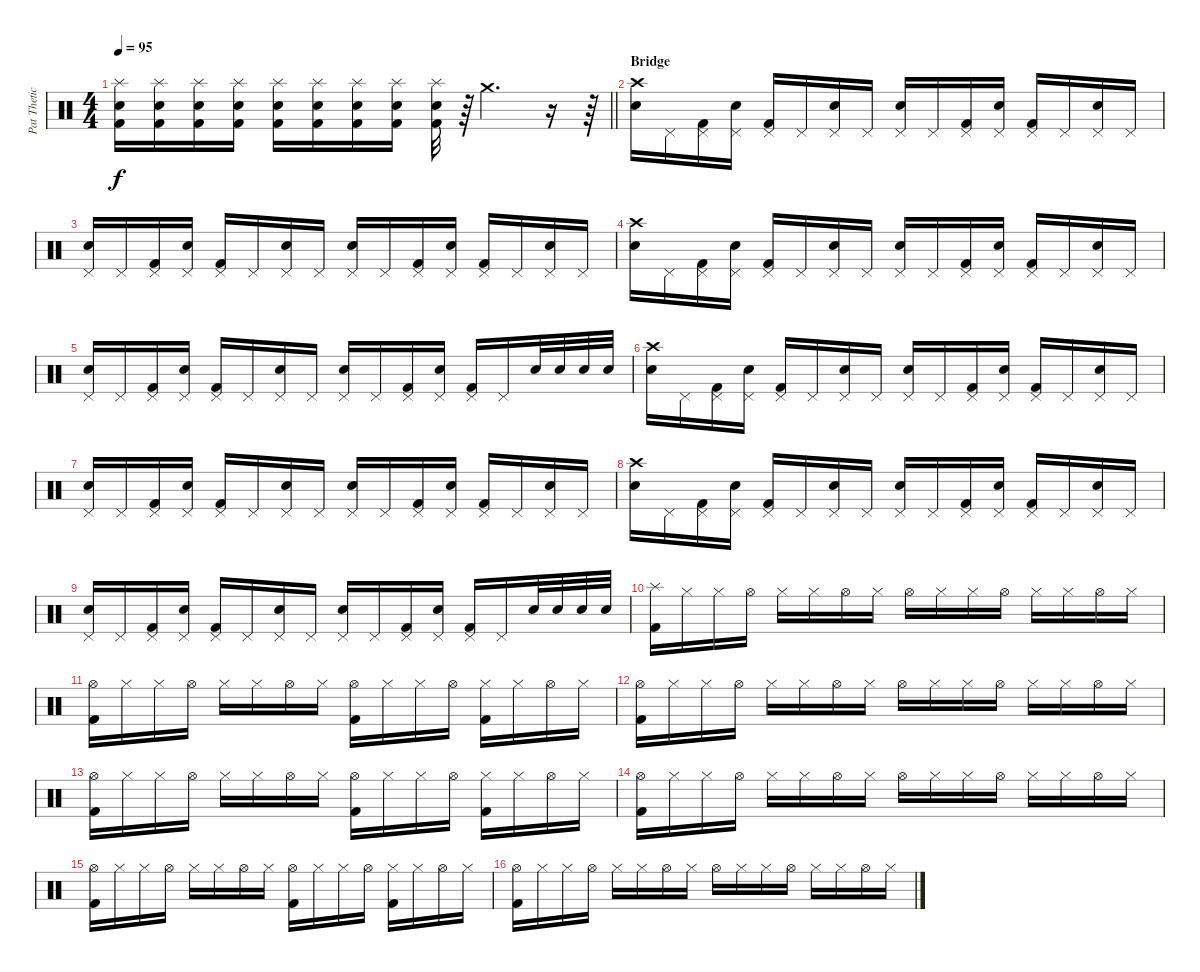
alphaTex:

\track ("Pat Thetic" "Pat Thetic") {instrument percussion}
\staff {score}
\articulation defaults
\ts (4 4)
\tempo 95
\clef neutral
\barLineRight lightlight
\ks c
("Kick (hit) 2" "Snare (hit) 2" "Splash (hit)").16{dy f} ("Kick (hit) 2" "Snare (hit) 2" "Splash (hit)").16 ("Kick (hit) 2" "Snare (hit) 2" "Splash (hit)").16 ("Kick (hit) 2" "Snare (hit) 2" "Splash (hit)").16 ("Kick (hit) 2" "Snare (hit) 2" "Splash (hit)").16 ("Kick (hit) 2" "Snare (hit) 2" "Splash (hit)").16 ("Kick (hit) 2" "Snare (hit) 2" "Splash (hit)").16 ("Kick (hit) 2" "Snare (hit) 2" "Splash (hit)").16 ("Kick (hit) 2" "Snare (hit) 2" "Splash (hit)").32 r.64{volume 0} "Crash medium (hit)".4{d volume 16} r.16 r.64 |
\section ("" "Bridge")
("Snare (hit) 2" "Crash high (hit)").16{volume 13} "Pedal Hi-Hat (hit)".16 ("Kick (hit) 2" "Pedal Hi-Hat (hit)").16 ("Snare (hit) 2" "Pedal Hi-Hat (hit)").16 ("Kick (hit) 2" "Pedal Hi-Hat (hit)").16 "Pedal Hi-Hat (hit)".16 ("Snare (hit) 2" "Pedal Hi-Hat (hit)").16 "Pedal Hi-Hat (hit)".16 ("Snare (hit) 2" "Pedal Hi-Hat (hit)").16 "Pedal Hi-Hat (hit)".16 ("Kick (hit) 2" "Pedal Hi-Hat (hit)").16 ("Snare (hit) 2" "Pedal Hi-Hat (hit)").16 ("Kick (hit) 2" "Pedal Hi-Hat (hit)").16 "Pedal Hi-Hat (hit)".16 ("Snare (hit) 2" "Pedal Hi-Hat (hit)").16 "Pedal Hi-Hat (hit)".16 |
("Snare (hit) 2" "Pedal Hi-Hat (hit)").16 "Pedal Hi-Hat (hit)".16 ("Kick (hit) 2" "Pedal Hi-Hat (hit)").16 ("Snare (hit) 2" "Pedal Hi-Hat (hit)").16 ("Kick (hit) 2" "Pedal Hi-Hat (hit)").16 "Pedal Hi-Hat (hit)".16 ("Snare (hit) 2" "Pedal Hi-Hat (hit)").16 "Pedal Hi-Hat (hit)".16 ("Snare (hit) 2" "Pedal Hi-Hat (hit)").16 "Pedal Hi-Hat (hit)".16 ("Kick (hit) 2" "Pedal Hi-Hat (hit)").16 ("Snare (hit) 2" "Pedal Hi-Hat (hit)").16 ("Kick (hit) 2" "Pedal Hi-Hat (hit)").16 "Pedal Hi-Hat (hit)".16 ("Snare (hit) 2" "Pedal Hi-Hat (hit)").16 "Pedal Hi-Hat (hit)".16 |
("Snare (hit) 2" "Crash high (hit)").16 "Pedal Hi-Hat (hit)".16 ("Kick (hit) 2" "Pedal Hi-Hat (hit)").16 ("Snare (hit) 2" "Pedal Hi-Hat (hit)").16 ("Kick (hit) 2" "Pedal Hi-Hat (hit)").16 "Pedal Hi-Hat (hit)".16 ("Snare (hit) 2" "Pedal Hi-Hat (hit)").16 "Pedal Hi-Hat (hit)".16 ("Snare (hit) 2" "Pedal Hi-Hat (hit)").16 "Pedal Hi-Hat (hit)".16 ("Kick (hit) 2" "Pedal Hi-Hat (hit)").16 ("Snare (hit) 2" "Pedal Hi-Hat (hit)").16 ("Kick (hit) 2" "Pedal Hi-Hat (hit)").16 "Pedal Hi-Hat (hit)".16 ("Snare (hit) 2" "Pedal Hi-Hat (hit)").16 "Pedal Hi-Hat (hit)".16 |
("Snare (hit) 2" "Pedal Hi-Hat (hit)").16 "Pedal Hi-Hat (hit)".16 ("Kick (hit) 2" "Pedal Hi-Hat (hit)").16 ("Snare (hit) 2" "Pedal Hi-Hat (hit)").16 ("Kick (hit) 2" "Pedal Hi-Hat (hit)").16 "Pedal Hi-Hat (hit)".16 ("Snare (hit) 2" "Pedal Hi-Hat (hit)").16 "Pedal Hi-Hat (hit)".16 ("Snare (hit) 2" "Pedal Hi-Hat (hit)").16 "Pedal Hi-Hat (hit)".16 ("Kick (hit) 2" "Pedal Hi-Hat (hit)").16 ("Snare (hit) 2" "Pedal Hi-Hat (hit)").16 ("Kick (hit) 2" "Pedal Hi-Hat (hit)").16 "Pedal Hi-Hat (hit)".16 "Snare (hit) 2".32 "Snare (hit) 2".32 "Snare (hit) 2".32 "Snare (hit) 2".32 |
("Snare (hit) 2" "Crash high (hit)").16 "Pedal Hi-Hat (hit)".16 ("Kick (hit) 2" "Pedal Hi-Hat (hit)").16 ("Snare (hit) 2" "Pedal Hi-Hat (hit)").16 ("Kick (hit) 2" "Pedal Hi-Hat (hit)").16 "Pedal Hi-Hat (hit)".16 ("Snare (hit) 2" "Pedal Hi-Hat (hit)").16 "Pedal Hi-Hat (hit)".16 ("Snare (hit) 2" "Pedal Hi-Hat (hit)").16 "Pedal Hi-Hat (hit)".16 ("Kick (hit) 2" "Pedal Hi-Hat (hit)").16 ("Snare (hit) 2" "Pedal Hi-Hat (hit)").16 ("Kick (hit) 2" "Pedal Hi-Hat (hit)").16 "Pedal Hi-Hat (hit)".16 ("Snare (hit) 2" "Pedal Hi-Hat (hit)").16 "Pedal Hi-Hat (hit)".16 |
("Snare (hit) 2" "Pedal Hi-Hat (hit)").16 "Pedal Hi-Hat (hit)".16 ("Kick (hit) 2" "Pedal Hi-Hat (hit)").16 ("Snare (hit) 2" "Pedal Hi-Hat (hit)").16 ("Kick (hit) 2" "Pedal Hi-Hat (hit)").16 "Pedal Hi-Hat (hit)".16 ("Snare (hit) 2" "Pedal Hi-Hat (hit)").16 "Pedal Hi-Hat (hit)".16 ("Snare (hit) 2" "Pedal Hi-Hat (hit)").16 "Pedal Hi-Hat (hit)".16 ("Kick (hit) 2" "Pedal Hi-Hat (hit)").16 ("Snare (hit) 2" "Pedal Hi-Hat (hit)").16 ("Kick (hit) 2" "Pedal Hi-Hat (hit)").16 "Pedal Hi-Hat (hit)".16 ("Snare (hit) 2" "Pedal Hi-Hat (hit)").16 "Pedal Hi-Hat (hit)".16 |
("Snare (hit) 2" "Crash high (hit)").16 "Pedal Hi-Hat (hit)".16 ("Kick (hit) 2" "Pedal Hi-Hat (hit)").16 ("Snare (hit) 2" "Pedal Hi-Hat (hit)").16 ("Kick (hit) 2" "Pedal Hi-Hat (hit)").16 "Pedal Hi-Hat (hit)".16 ("Snare (hit) 2" "Pedal Hi-Hat (hit)").16 "Pedal Hi-Hat (hit)".16 ("Snare (hit) 2" "Pedal Hi-Hat (hit)").16 "Pedal Hi-Hat (hit)".16 ("Kick (hit) 2" "Pedal Hi-Hat (hit)").16 ("Snare (hit) 2" "Pedal Hi-Hat (hit)").16 ("Kick (hit) 2" "Pedal Hi-Hat (hit)").16 "Pedal Hi-Hat (hit)".16 ("Snare (hit) 2" "Pedal Hi-Hat (hit)").16 "Pedal Hi-Hat (hit)".16 |
("Snare (hit) 2" "Pedal Hi-Hat (hit)").16 "Pedal Hi-Hat (hit)".16 ("Kick (hit) 2" "Pedal Hi-Hat (hit)").16 ("Snare (hit) 2" "Pedal Hi-Hat (hit)").16 ("Kick (hit) 2" "Pedal Hi-Hat (hit)").16 "Pedal Hi-Hat (hit)".16 ("Snare (hit) 2" "Pedal Hi-Hat (hit)").16 "Pedal Hi-Hat (hit)".16 ("Snare (hit) 2" "Pedal Hi-Hat (hit)").16 "Pedal Hi-Hat (hit)".16 ("Kick (hit) 2" "Pedal Hi-Hat (hit)").16 ("Snare (hit) 2" "Pedal Hi-Hat (hit)").16 ("Kick (hit) 2" "Pedal Hi-Hat (hit)").16 "Pedal Hi-Hat (hit)".16 "Snare (hit) 2".32 "Snare (hit) 2".32 "Snare (hit) 2".32 "Snare (hit) 2".32 |
("Splash (hit)" "Kick (hit) 2").16 "Hi-Hat (closed)".16 "Hi-Hat (closed)".16 "Hi-Hat (open)".16 "Hi-Hat (closed)".16 "Hi-Hat (closed)".16 "Hi-Hat (open)".16 "Hi-Hat (closed)".16 "Hi-Hat (open)".16 "Hi-Hat (closed)".16 "Hi-Hat (closed)".16 "Hi-Hat (open)".16 "Hi-Hat (closed)".16 "Hi-Hat (closed)".16 "Hi-Hat (open)".16 "Hi-Hat (closed)".16 |
("Hi-Hat (open)" "Kick (hit) 2").16 "Hi-Hat (closed)".16 "Hi-Hat (closed)".16 "Hi-Hat (open)".16 "Hi-Hat (closed)".16 "Hi-Hat (closed)".16 "Hi-Hat (open)".16 "Hi-Hat (closed)".16 ("Hi-Hat (open)" "Kick (hit) 2").16 "Hi-Hat (closed)".16 "Hi-Hat (closed)".16 "Hi-Hat (open)".16 ("Hi-Hat (closed)" "Kick (hit) 2").16 "Hi-Hat (closed)".16 "Hi-Hat (open)".16 "Hi-Hat (closed)".16 |
("Hi-Hat (open)" "Kick (hit) 2").16 "Hi-Hat (closed)".16 "Hi-Hat (closed)".16 "Hi-Hat (open)".16 "Hi-Hat (closed)".16 "Hi-Hat (closed)".16 "Hi-Hat (open)".16 "Hi-Hat (closed)".16 "Hi-Hat (open)".16 "Hi-Hat (closed)".16 "Hi-Hat (closed)".16 "Hi-Hat (open)".16 "Hi-Hat (closed)".16 "Hi-Hat (closed)".16 "Hi-Hat (open)".16 "Hi-Hat (closed)".16 |
("Hi-Hat (open)" "Kick (hit) 2").16 "Hi-Hat (closed)".16 "Hi-Hat (closed)".16 "Hi-Hat (open)".16 "Hi-Hat (closed)".16 "Hi-Hat (closed)".16 "Hi-Hat (open)".16 "Hi-Hat (closed)".16 ("Hi-Hat (open)" "Kick (hit) 2").16 "Hi-Hat (closed)".16 "Hi-Hat (closed)".16 "Hi-Hat (open)".16 ("Hi-Hat (closed)" "Kick (hit) 2").16 "Hi-Hat (closed)".16 "Hi-Hat (open)".16 "Hi-Hat (closed)".16 |
("Hi-Hat (open)" "Kick (hit) 2").16 "Hi-Hat (closed)".16 "Hi-Hat (closed)".16 "Hi-Hat (open)".16 "Hi-Hat (closed)".16 "Hi-Hat (closed)".16 "Hi-Hat (open)".16 "Hi-Hat (closed)".16 "Hi-Hat (open)".16 "Hi-Hat (closed)".16 "Hi-Hat (closed)".16 "Hi-Hat (open)".16 "Hi-Hat (closed)".16 "Hi-Hat (closed)".16 "Hi-Hat (open)".16 "Hi-Hat (closed)".16 |
("Hi-Hat (open)" "Kick (hit) 2").16 "Hi-Hat (closed)".16 "Hi-Hat (closed)".16 "Hi-Hat (open)".16 "Hi-Hat (closed)".16 "Hi-Hat (closed)".16 "Hi-Hat (open)".16 "Hi-Hat (closed)".16 ("Hi-Hat (open)" "Kick (hit) 2").16 "Hi-Hat (closed)".16 "Hi-Hat (closed)".16 "Hi-Hat (open)".16 ("Hi-Hat (closed)" "Kick (hit) 2").16 "Hi-Hat (closed)".16 "Hi-Hat (open)".16 "Hi-Hat (closed)".16 |
("Hi-Hat (open)" "Kick (hit) 2").16 "Hi-Hat (closed)".16 "Hi-Hat (closed)".16 "Hi-Hat (open)".16 "Hi-Hat (closed)".16 "Hi-Hat (closed)".16 "Hi-Hat (open)".16 "Hi-Hat (closed)".16 "Hi-Hat (open)".16 "Hi-Hat (closed)".16 "Hi-Hat (closed)".16 "Hi-Hat (open)".16 "Hi-Hat (closed)".16 "Hi-Hat (closed)".16 "Hi-Hat (open)".16 "Hi-Hat (closed)".16
